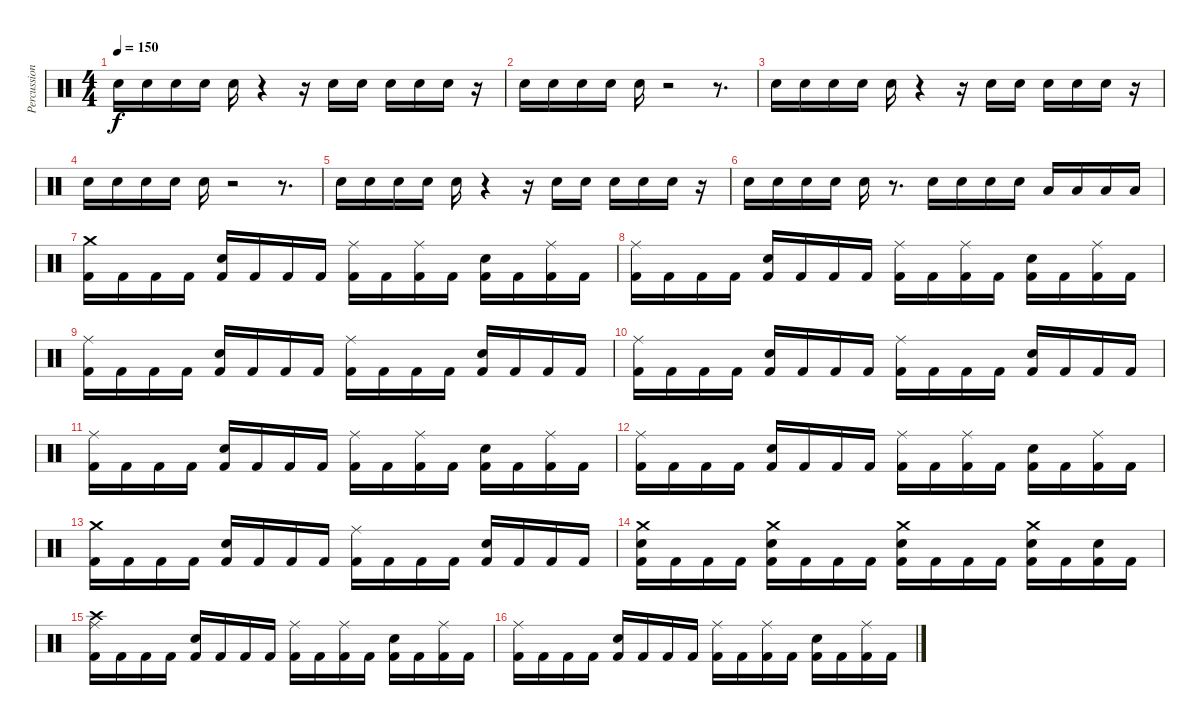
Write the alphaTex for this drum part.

\track ("Percussion" "Percussion") {instrument percussion}
\staff {score}
\articulation defaults
\ts (4 4)
\tempo 150
\clef neutral
\ks c "Electric Snare (hit)".16{dy f} "Electric Snare (hit)".16 "Electric Snare (hit)".16 "Electric Snare (hit)".16 "Electric Snare (hit)".16
r.4 r.16 "Electric Snare (hit)".16 "Electric Snare (hit)".16 "Electric Snare (hit)".16 "Electric Snare (hit)".16 "Electric Snare (hit)".16 r.16 |
"Electric Snare (hit)".16 "Electric Snare (hit)".16 "Electric Snare (hit)".16 "Electric Snare (hit)".16 "Electric Snare (hit)".16 r.2 r.8{d} |
"Electric Snare (hit)".16 "Electric Snare (hit)".16 "Electric Snare (hit)".16 "Electric Snare (hit)".16 "Electric Snare (hit)".16 r.4 r.16 "Electric Snare (hit)".16 "Electric Snare (hit)".16 "Electric Snare (hit)".16 "Electric Snare (hit)".16 "Electric Snare (hit)".16 r.16 |
"Electric Snare (hit)".16 "Electric Snare (hit)".16 "Electric Snare (hit)".16 "Electric Snare (hit)".16 "Electric Snare (hit)".16 r.2 r.8{d} |
"Electric Snare (hit)".16 "Electric Snare (hit)".16 "Electric Snare (hit)".16 "Electric Snare (hit)".16 "Electric Snare (hit)".16 r.4 r.16 "Electric Snare (hit)".16 "Electric Snare (hit)".16 "Electric Snare (hit)".16 "Electric Snare (hit)".16 "Electric Snare (hit)".16 r.16 |
"Electric Snare (hit)".16 "Electric Snare (hit)".16 "Electric Snare (hit)".16 "Electric Snare (hit)".16 "Electric Snare (hit)".16 r.8{d} "Electric Snare (hit)".16 "Electric Snare (hit)".16 "Electric Snare (hit)".16 "Electric Snare (hit)".16 "Low Tom (hit)".16 "Low Tom (hit)".16 "Low Tom (hit)".16 "Low Tom (hit)".16 |
("Kick (hit) 2" "Crash medium (hit)").16 "Kick (hit) 2".16 "Kick (hit) 2".16 "Kick (hit) 2".16 ("Kick (hit) 2" "Electric Snare (hit)").16 "Kick (hit) 2".16 "Kick (hit) 2".16 "Kick (hit) 2".16 ("Kick (hit) 2" "Ride (middle)").16 "Kick (hit) 2".16 ("Kick (hit) 2" "Ride (middle)").16 "Kick (hit) 2".16 ("Kick (hit) 2" "Electric Snare (hit)").16 "Kick (hit) 2".16 ("Kick (hit) 2" "Ride (middle)").16 "Kick (hit) 2".16 |
("Kick (hit) 2" "Ride (middle)").16 "Kick (hit) 2".16 "Kick (hit) 2".16 "Kick (hit) 2".16 ("Kick (hit) 2" "Electric Snare (hit)").16 "Kick (hit) 2".16 "Kick (hit) 2".16 "Kick (hit) 2".16 ("Kick (hit) 2" "Ride (middle)").16 "Kick (hit) 2".16 ("Kick (hit) 2" "Ride (middle)").16 "Kick (hit) 2".16 ("Kick (hit) 2" "Electric Snare (hit)").16 "Kick (hit) 2".16 ("Kick (hit) 2" "Ride (middle)").16 "Kick (hit) 2".16 |
("Kick (hit) 2" "Ride (middle)").16 "Kick (hit) 2".16 "Kick (hit) 2".16 "Kick (hit) 2".16 ("Kick (hit) 2" "Electric Snare (hit)").16 "Kick (hit) 2".16 "Kick (hit) 2".16 "Kick (hit) 2".16 ("Kick (hit) 2" "Ride (middle)").16 "Kick (hit) 2".16 "Kick (hit) 2".16 "Kick (hit) 2".16 ("Kick (hit) 2" "Electric Snare (hit)").16 "Kick (hit) 2".16 "Kick (hit) 2".16 "Kick (hit) 2".16 |
("Kick (hit) 2" "Ride (middle)").16 "Kick (hit) 2".16 "Kick (hit) 2".16 "Kick (hit) 2".16 ("Kick (hit) 2" "Electric Snare (hit)").16 "Kick (hit) 2".16 "Kick (hit) 2".16 "Kick (hit) 2".16 ("Kick (hit) 2" "Ride (middle)").16 "Kick (hit) 2".16 "Kick (hit) 2".16 "Kick (hit) 2".16 ("Kick (hit) 2" "Electric Snare (hit)").16 "Kick (hit) 2".16 "Kick (hit) 2".16 "Kick (hit) 2".16 |
("Kick (hit) 2" "Ride (middle)").16 "Kick (hit) 2".16 "Kick (hit) 2".16 "Kick (hit) 2".16 ("Kick (hit) 2" "Electric Snare (hit)").16 "Kick (hit) 2".16 "Kick (hit) 2".16 "Kick (hit) 2".16 ("Kick (hit) 2" "Ride (middle)").16 "Kick (hit) 2".16 ("Kick (hit) 2" "Ride (middle)").16 "Kick (hit) 2".16 ("Kick (hit) 2" "Electric Snare (hit)").16 "Kick (hit) 2".16 ("Kick (hit) 2" "Ride (middle)").16 "Kick (hit) 2".16 |
("Kick (hit) 2" "Ride (middle)").16 "Kick (hit) 2".16 "Kick (hit) 2".16 "Kick (hit) 2".16 ("Kick (hit) 2" "Electric Snare (hit)").16 "Kick (hit) 2".16 "Kick (hit) 2".16 "Kick (hit) 2".16 ("Kick (hit) 2" "Ride (middle)").16 "Kick (hit) 2".16 ("Kick (hit) 2" "Ride (middle)").16 "Kick (hit) 2".16 ("Kick (hit) 2" "Electric Snare (hit)").16 "Kick (hit) 2".16 ("Kick (hit) 2" "Ride (middle)").16 "Kick (hit) 2".16 |
("Kick (hit) 2" "Crash medium (hit)").16 "Kick (hit) 2".16 "Kick (hit) 2".16 "Kick (hit) 2".16 ("Kick (hit) 2" "Electric Snare (hit)").16 "Kick (hit) 2".16 "Kick (hit) 2".16 "Kick (hit) 2".16 ("Kick (hit) 2" "Ride (middle)").16 "Kick (hit) 2".16 "Kick (hit) 2".16 "Kick (hit) 2".16 ("Kick (hit) 2" "Electric Snare (hit)").16 "Kick (hit) 2".16 "Kick (hit) 2".16 "Kick (hit) 2".16 |
("Kick (hit) 2" "Electric Snare (hit)" "Crash medium (hit)").16 "Kick (hit) 2".16 "Kick (hit) 2".16 "Kick (hit) 2".16 ("Kick (hit) 2" "Electric Snare (hit)" "Crash medium (hit)").16 "Kick (hit) 2".16 "Kick (hit) 2".16 "Kick (hit) 2".16 ("Kick (hit) 2" "Electric Snare (hit)" "Crash medium (hit)").16 "Kick (hit) 2".16 "Kick (hit) 2".16 "Kick (hit) 2".16 ("Kick (hit) 2" "Electric Snare (hit)" "Crash medium (hit)").16 "Kick (hit) 2".16 ("Kick (hit) 2" "Electric Snare (hit)").16 "Kick (hit) 2".16 |
("Kick (hit) 2" "Crash high (hit)" "Ride (middle)").16 "Kick (hit) 2".16 "Kick (hit) 2".16 "Kick (hit) 2".16 ("Kick (hit) 2" "Electric Snare (hit)").16 "Kick (hit) 2".16 "Kick (hit) 2".16 "Kick (hit) 2".16 ("Kick (hit) 2" "Ride (middle)").16 "Kick (hit) 2".16 ("Kick (hit) 2" "Ride (middle)").16 "Kick (hit) 2".16 ("Kick (hit) 2" "Electric Snare (hit)").16 "Kick (hit) 2".16 ("Kick (hit) 2" "Ride (middle)").16 "Kick (hit) 2".16 |
("Kick (hit) 2" "Ride (middle)").16 "Kick (hit) 2".16 "Kick (hit) 2".16 "Kick (hit) 2".16 ("Kick (hit) 2" "Electric Snare (hit)").16 "Kick (hit) 2".16 "Kick (hit) 2".16 "Kick (hit) 2".16 ("Kick (hit) 2" "Ride (middle)").16 "Kick (hit) 2".16 ("Kick (hit) 2" "Ride (middle)").16 "Kick (hit) 2".16 ("Kick (hit) 2" "Electric Snare (hit)").16 "Kick (hit) 2".16 ("Kick (hit) 2" "Ride (middle)").16 "Kick (hit) 2".16
